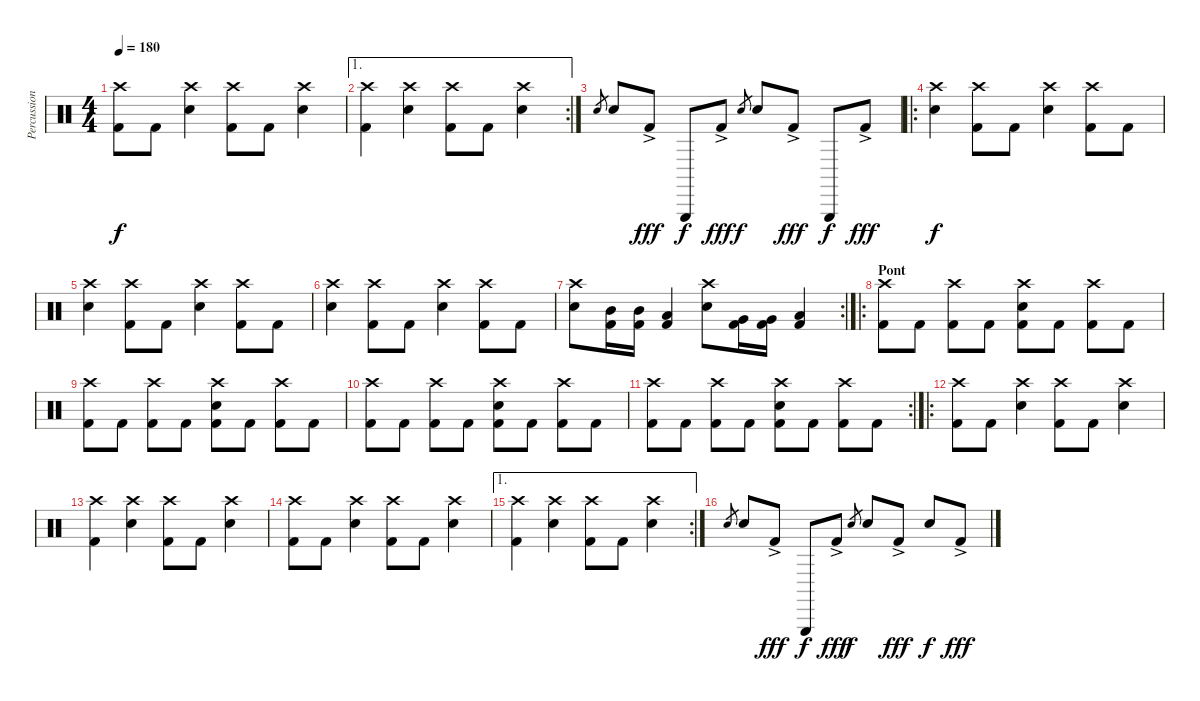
\track ("Percussions" "Percussion") {instrument percussion}
\staff {score}
\articulation defaults
\ts (4 4)
\tempo 180
\clef neutral
\ks c
("Crash high (hit)" "Kick (hit) 2").8{dy f} "Kick (hit) 2".8 ("Crash high (hit)" "Snare (hit) 2").4 ("Crash high (hit)" "Kick (hit) 2").8 "Kick (hit) 2".8 ("Crash high (hit)" "Snare (hit) 2").4 |
\ae 1
\rc 2
("Crash high (hit)" "Kick (hit) 2").4 ("Crash high (hit)" "Snare (hit) 2").4 ("Crash high (hit)" "Kick (hit) 2").8 "Kick (hit) 2".8 ("Crash high (hit)" "Snare (hit) 2").4 |
"Snare (hit) 2".8{gr} "Snare (hit) 2".8 "Kick (hit) 2"{ac}.8{dy fff} "Triangle (hit)".8{dy f} "Kick (hit) 2"{ac}.8{dy fff} "Snare (hit) 2".8{gr dy f} "Snare (hit) 2".8 "Kick (hit) 2"{ac}.8{dy fff} "Triangle (hit)".8{dy f} "Kick (hit) 2"{ac}.8{dy fff} |
\ro
("Crash high (hit)" "Snare (hit) 2").4{dy f} ("Crash high (hit)" "Kick (hit) 2").8 "Kick (hit) 2".8 ("Crash high (hit)" "Snare (hit) 2").4 ("Crash high (hit)" "Kick (hit) 2").8 "Kick (hit) 2".8 |
("Crash high (hit)" "Snare (hit) 2").4 ("Crash high (hit)" "Kick (hit) 2").8 "Kick (hit) 2".8 ("Crash high (hit)" "Snare (hit) 2").4 ("Crash high (hit)" "Kick (hit) 2").8 "Kick (hit) 2".8 |
("Crash high (hit)" "Snare (hit) 2").4 ("Crash high (hit)" "Kick (hit) 2").8 "Kick (hit) 2".8 ("Crash high (hit)" "Snare (hit) 2").4 ("Crash high (hit)" "Kick (hit) 2").8 "Kick (hit) 2".8 |
\rc 2
("Crash high (hit)" "Snare (hit) 2").8 ("Mid Tom (hit)" "Kick (hit) 2").16 ("Mid Tom (hit)" "Kick (hit) 2").16 ("Low Tom (hit)" "Kick (hit) 2").4 ("Crash high (hit)" "Snare (hit) 2").8 ("Very Low Tom (hit)" "Kick (hit) 2").16 ("Very Low Tom (hit)" "Kick (hit) 2").16 ("Low Floor Tom (hit)" "Kick (hit) 2").4 |
\ro
\section ("" "Pont")
("Crash high (hit)" "Kick (hit) 2").8 "Kick (hit) 2".8 ("Crash high (hit)" "Kick (hit) 2").8 "Kick (hit) 2".8 ("Crash high (hit)" "Snare (hit) 2" "Kick (hit) 2").8 "Kick (hit) 2".8 ("Crash high (hit)" "Kick (hit) 2").8 "Kick (hit) 2".8 |
("Crash high (hit)" "Kick (hit) 2").8 "Kick (hit) 2".8 ("Crash high (hit)" "Kick (hit) 2").8 "Kick (hit) 2".8 ("Crash high (hit)" "Snare (hit) 2" "Kick (hit) 2").8 "Kick (hit) 2".8 ("Crash high (hit)" "Kick (hit) 2").8 "Kick (hit) 2".8 |
("Crash high (hit)" "Kick (hit) 2").8 "Kick (hit) 2".8 ("Crash high (hit)" "Kick (hit) 2").8 "Kick (hit) 2".8 ("Crash high (hit)" "Snare (hit) 2" "Kick (hit) 2").8 "Kick (hit) 2".8 ("Crash high (hit)" "Kick (hit) 2").8 "Kick (hit) 2".8 |
\rc 2
("Crash high (hit)" "Kick (hit) 2").8 "Kick (hit) 2".8 ("Crash high (hit)" "Kick (hit) 2").8 "Kick (hit) 2".8 ("Crash high (hit)" "Snare (hit) 2" "Kick (hit) 2").8 "Kick (hit) 2".8 ("Crash high (hit)" "Kick (hit) 2").8 "Kick (hit) 2".8 |
\ro
("Crash high (hit)" "Kick (hit) 2").8 "Kick (hit) 2".8 ("Crash high (hit)" "Snare (hit) 2").4 ("Crash high (hit)" "Kick (hit) 2").8 "Kick (hit) 2".8 ("Crash high (hit)" "Snare (hit) 2").4 |
("Crash high (hit)" "Kick (hit) 2").4 ("Crash high (hit)" "Snare (hit) 2").4 ("Crash high (hit)" "Kick (hit) 2").8 "Kick (hit) 2".8 ("Crash high (hit)" "Snare (hit) 2").4 |
("Crash high (hit)" "Kick (hit) 2").8 "Kick (hit) 2".8 ("Crash high (hit)" "Snare (hit) 2").4 ("Crash high (hit)" "Kick (hit) 2").8 "Kick (hit) 2".8 ("Crash high (hit)" "Snare (hit) 2").4 |
\ae 1
\rc 2
("Crash high (hit)" "Kick (hit) 2").4 ("Crash high (hit)" "Snare (hit) 2").4 ("Crash high (hit)" "Kick (hit) 2").8 "Kick (hit) 2".8 ("Crash high (hit)" "Snare (hit) 2").4 |
"Snare (hit) 2".8{gr} "Snare (hit) 2".8 "Kick (hit) 2"{ac}.8{dy fff} "Triangle (hit)".8{dy f} "Kick (hit) 2"{ac}.8{dy fff} "Snare (hit) 2".8{gr dy f} "Snare (hit) 2".8 "Kick (hit) 2"{ac}.8{dy fff} "Electric Snare (hit)".8{dy f} "Kick (hit) 2"{ac}.8{dy fff}
